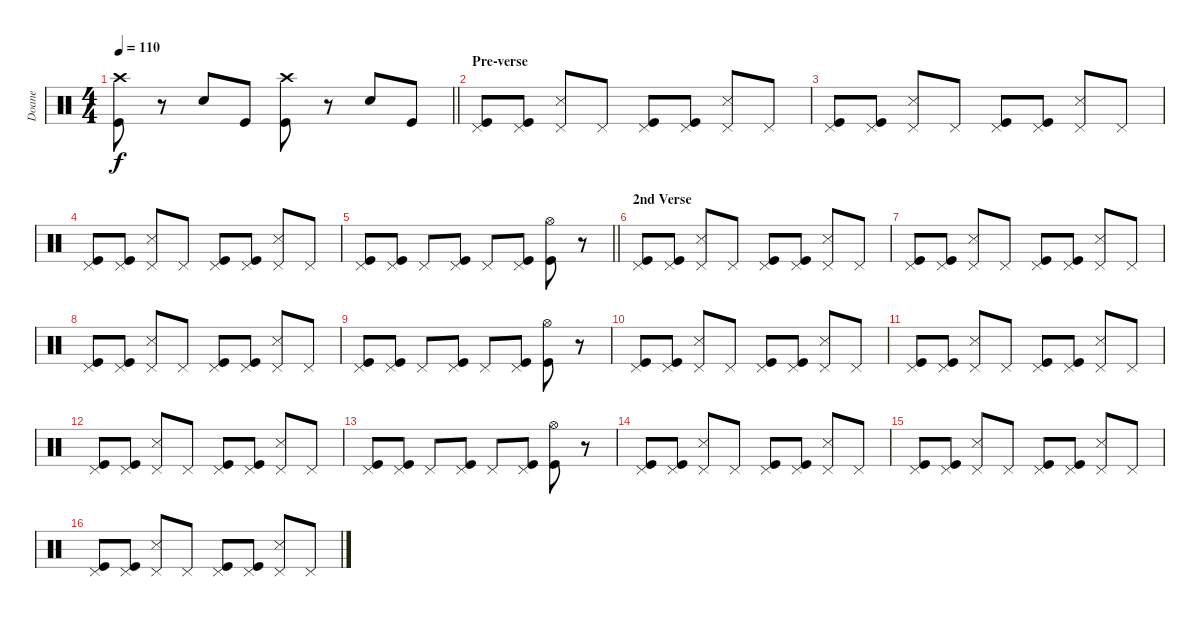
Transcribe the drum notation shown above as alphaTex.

\track ("Doane" "Doane") {instrument percussion}
\staff {score}
\articulation defaults
\ts (4 4)
\tempo 110
\clef neutral
\barLineRight lightlight
\ks c
("Crash high (hit)" "Kick (hit)").8{dy f} r.8 "Snare (hit) 2".8 "Kick (hit)".8 ("Crash high (hit)" "Kick (hit)").8 r.8 "Snare (hit) 2".8 "Kick (hit)".8 |
\section ("" "Pre-verse ")
("Pedal Hi-Hat (hit)" "Kick (hit)").8 ("Pedal Hi-Hat (hit)" "Kick (hit)").8 ("Pedal Hi-Hat (hit)" "Snare (side stick) 3").8 "Pedal Hi-Hat (hit)".8 ("Pedal Hi-Hat (hit)" "Kick (hit)").8 ("Pedal Hi-Hat (hit)" "Kick (hit)").8 ("Pedal Hi-Hat (hit)" "Snare (side stick) 3").8 "Pedal Hi-Hat (hit)".8 |
("Pedal Hi-Hat (hit)" "Kick (hit)").8 ("Pedal Hi-Hat (hit)" "Kick (hit)").8 ("Pedal Hi-Hat (hit)" "Snare (side stick) 3").8 "Pedal Hi-Hat (hit)".8 ("Pedal Hi-Hat (hit)" "Kick (hit)").8 ("Pedal Hi-Hat (hit)" "Kick (hit)").8 ("Pedal Hi-Hat (hit)" "Snare (side stick) 3").8 "Pedal Hi-Hat (hit)".8 |
("Pedal Hi-Hat (hit)" "Kick (hit)").8 ("Pedal Hi-Hat (hit)" "Kick (hit)").8 ("Pedal Hi-Hat (hit)" "Snare (side stick) 3").8 "Pedal Hi-Hat (hit)".8 ("Pedal Hi-Hat (hit)" "Kick (hit)").8 ("Pedal Hi-Hat (hit)" "Kick (hit)").8 ("Pedal Hi-Hat (hit)" "Snare (side stick) 3").8 "Pedal Hi-Hat (hit)".8 |
\barLineRight lightlight
("Pedal Hi-Hat (hit)" "Kick (hit)").8 ("Pedal Hi-Hat (hit)" "Kick (hit)").8 "Pedal Hi-Hat (hit)".8 ("Pedal Hi-Hat (hit)" "Kick (hit)").8 "Pedal Hi-Hat (hit)".8 ("Pedal Hi-Hat (hit)" "Kick (hit)").8 ("Hi-Hat (open)" "Kick (hit)").8 r.8 |
\section ("" "2nd Verse")
("Pedal Hi-Hat (hit)" "Kick (hit)").8 ("Pedal Hi-Hat (hit)" "Kick (hit)").8 ("Pedal Hi-Hat (hit)" "Snare (side stick) 3").8 "Pedal Hi-Hat (hit)".8 ("Pedal Hi-Hat (hit)" "Kick (hit)").8 ("Pedal Hi-Hat (hit)" "Kick (hit)").8 ("Pedal Hi-Hat (hit)" "Snare (side stick) 3").8 "Pedal Hi-Hat (hit)".8 |
("Pedal Hi-Hat (hit)" "Kick (hit)").8 ("Pedal Hi-Hat (hit)" "Kick (hit)").8 ("Pedal Hi-Hat (hit)" "Snare (side stick) 3").8 "Pedal Hi-Hat (hit)".8 ("Pedal Hi-Hat (hit)" "Kick (hit)").8 ("Pedal Hi-Hat (hit)" "Kick (hit)").8 ("Pedal Hi-Hat (hit)" "Snare (side stick) 3").8 "Pedal Hi-Hat (hit)".8 |
("Pedal Hi-Hat (hit)" "Kick (hit)").8 ("Pedal Hi-Hat (hit)" "Kick (hit)").8 ("Pedal Hi-Hat (hit)" "Snare (side stick) 3").8 "Pedal Hi-Hat (hit)".8 ("Pedal Hi-Hat (hit)" "Kick (hit)").8 ("Pedal Hi-Hat (hit)" "Kick (hit)").8 ("Pedal Hi-Hat (hit)" "Snare (side stick) 3").8 "Pedal Hi-Hat (hit)".8 |
("Pedal Hi-Hat (hit)" "Kick (hit)").8 ("Pedal Hi-Hat (hit)" "Kick (hit)").8 "Pedal Hi-Hat (hit)".8 ("Pedal Hi-Hat (hit)" "Kick (hit)").8 "Pedal Hi-Hat (hit)".8 ("Pedal Hi-Hat (hit)" "Kick (hit)").8 ("Hi-Hat (open)" "Kick (hit)").8 r.8 |
("Pedal Hi-Hat (hit)" "Kick (hit)").8 ("Pedal Hi-Hat (hit)" "Kick (hit)").8 ("Pedal Hi-Hat (hit)" "Snare (side stick) 3").8 "Pedal Hi-Hat (hit)".8 ("Pedal Hi-Hat (hit)" "Kick (hit)").8 ("Pedal Hi-Hat (hit)" "Kick (hit)").8 ("Pedal Hi-Hat (hit)" "Snare (side stick) 3").8 "Pedal Hi-Hat (hit)".8 |
("Pedal Hi-Hat (hit)" "Kick (hit)").8 ("Pedal Hi-Hat (hit)" "Kick (hit)").8 ("Pedal Hi-Hat (hit)" "Snare (side stick) 3").8 "Pedal Hi-Hat (hit)".8 ("Pedal Hi-Hat (hit)" "Kick (hit)").8 ("Pedal Hi-Hat (hit)" "Kick (hit)").8 ("Pedal Hi-Hat (hit)" "Snare (side stick) 3").8 "Pedal Hi-Hat (hit)".8 |
("Pedal Hi-Hat (hit)" "Kick (hit)").8 ("Pedal Hi-Hat (hit)" "Kick (hit)").8 ("Pedal Hi-Hat (hit)" "Snare (side stick) 3").8 "Pedal Hi-Hat (hit)".8 ("Pedal Hi-Hat (hit)" "Kick (hit)").8 ("Pedal Hi-Hat (hit)" "Kick (hit)").8 ("Pedal Hi-Hat (hit)" "Snare (side stick) 3").8 "Pedal Hi-Hat (hit)".8 |
("Pedal Hi-Hat (hit)" "Kick (hit)").8 ("Pedal Hi-Hat (hit)" "Kick (hit)").8 "Pedal Hi-Hat (hit)".8 ("Pedal Hi-Hat (hit)" "Kick (hit)").8 "Pedal Hi-Hat (hit)".8 ("Pedal Hi-Hat (hit)" "Kick (hit)").8 ("Hi-Hat (open)" "Kick (hit)").8 r.8 |
("Pedal Hi-Hat (hit)" "Kick (hit)").8 ("Pedal Hi-Hat (hit)" "Kick (hit)").8 ("Pedal Hi-Hat (hit)" "Snare (side stick) 3").8 "Pedal Hi-Hat (hit)".8 ("Pedal Hi-Hat (hit)" "Kick (hit)").8 ("Pedal Hi-Hat (hit)" "Kick (hit)").8 ("Pedal Hi-Hat (hit)" "Snare (side stick) 3").8 "Pedal Hi-Hat (hit)".8 |
("Pedal Hi-Hat (hit)" "Kick (hit)").8 ("Pedal Hi-Hat (hit)" "Kick (hit)").8 ("Pedal Hi-Hat (hit)" "Snare (side stick) 3").8 "Pedal Hi-Hat (hit)".8 ("Pedal Hi-Hat (hit)" "Kick (hit)").8 ("Pedal Hi-Hat (hit)" "Kick (hit)").8 ("Pedal Hi-Hat (hit)" "Snare (side stick) 3").8 "Pedal Hi-Hat (hit)".8 |
("Pedal Hi-Hat (hit)" "Kick (hit)").8 ("Pedal Hi-Hat (hit)" "Kick (hit)").8 ("Pedal Hi-Hat (hit)" "Snare (side stick) 3").8 "Pedal Hi-Hat (hit)".8 ("Pedal Hi-Hat (hit)" "Kick (hit)").8 ("Pedal Hi-Hat (hit)" "Kick (hit)").8 ("Pedal Hi-Hat (hit)" "Snare (side stick) 3").8 "Pedal Hi-Hat (hit)".8
